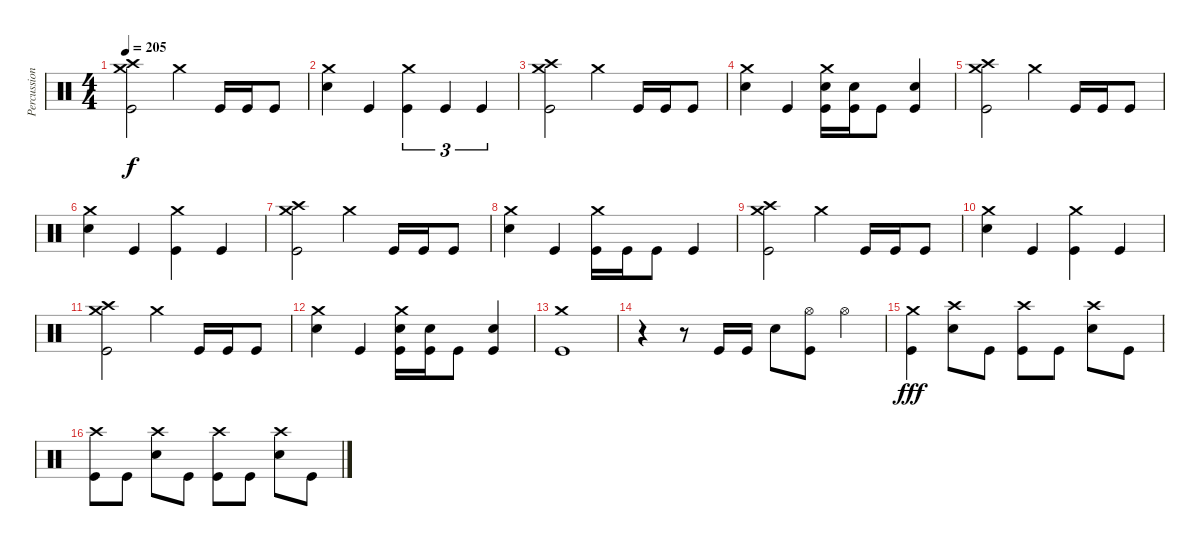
\track ("Percussion" "Percussion") {instrument percussion}
\staff {score}
\articulation defaults
\ts (4 4)
\tempo 205
\clef neutral
\ks c
("Crash medium (hit)" "Crash high (hit)" "Kick (hit)").2{dy f} "Crash medium (hit)".4 "Kick (hit)".16 "Kick (hit)".16 "Kick (hit)".8 |
("Crash medium (hit)" "Electric Snare (hit)").4 "Kick (hit)".4 ("Crash medium (hit)" "Kick (hit)").4{tu (3 2)} "Kick (hit)".4{tu (3 2)} "Kick (hit)".4{tu (3 2)} |
("Crash medium (hit)" "Crash high (hit)" "Kick (hit)").2 "Crash medium (hit)".4 "Kick (hit)".16 "Kick (hit)".16 "Kick (hit)".8 |
("Crash medium (hit)" "Electric Snare (hit)").4 "Kick (hit)".4 ("Crash medium (hit)" "Electric Snare (hit)" "Kick (hit)").16 ("Electric Snare (hit)" "Kick (hit)").16 "Kick (hit)".8 ("Electric Snare (hit)" "Kick (hit)").4 |
("Crash medium (hit)" "Crash high (hit)" "Kick (hit)").2 "Crash medium (hit)".4 "Kick (hit)".16 "Kick (hit)".16 "Kick (hit)".8 |
("Crash medium (hit)" "Electric Snare (hit)").4 "Kick (hit)".4 ("Crash medium (hit)" "Kick (hit)").4 "Kick (hit)".4 |
("Crash medium (hit)" "Crash high (hit)" "Kick (hit)").2 "Crash medium (hit)".4 "Kick (hit)".16 "Kick (hit)".16 "Kick (hit)".8 |
("Crash medium (hit)" "Electric Snare (hit)").4 "Kick (hit)".4 ("Crash medium (hit)" "Kick (hit)").16 "Kick (hit)".16 "Kick (hit)".8 "Kick (hit)".4 |
("Crash medium (hit)" "Crash high (hit)" "Kick (hit)").2 "Crash medium (hit)".4 "Kick (hit)".16 "Kick (hit)".16 "Kick (hit)".8 |
("Crash medium (hit)" "Electric Snare (hit)").4 "Kick (hit)".4 ("Crash medium (hit)" "Kick (hit)").4 "Kick (hit)".4 |
("Crash medium (hit)" "Crash high (hit)" "Kick (hit)").2 "Crash medium (hit)".4 "Kick (hit)".16 "Kick (hit)".16 "Kick (hit)".8 |
("Crash medium (hit)" "Electric Snare (hit)").4 "Kick (hit)".4 ("Crash medium (hit)" "Electric Snare (hit)" "Kick (hit)").16 ("Electric Snare (hit)" "Kick (hit)").16 "Kick (hit)".8 ("Electric Snare (hit)" "Kick (hit)").4 |
("Crash medium (hit)" "Kick (hit)").1 |
r.4 r.8 "Kick (hit)".16 "Kick (hit)".16 "Electric Snare (hit)".8 ("Hi-Hat (open)" "Kick (hit)").8 "Hi-Hat (open)".4 |
("Crash medium (hit)" "Kick (hit)").4{dy fff} ("Crash high (hit)" "Electric Snare (hit)").8 "Kick (hit)".8 ("Crash high (hit)" "Kick (hit)").8 "Kick (hit)".8 ("Crash high (hit)" "Electric Snare (hit)").8 "Kick (hit)".8 |
("Crash high (hit)" "Kick (hit)").8 "Kick (hit)".8 ("Crash high (hit)" "Electric Snare (hit)").8 "Kick (hit)".8 ("Crash high (hit)" "Kick (hit)").8 "Kick (hit)".8 ("Crash high (hit)" "Electric Snare (hit)").8 "Kick (hit)".8
